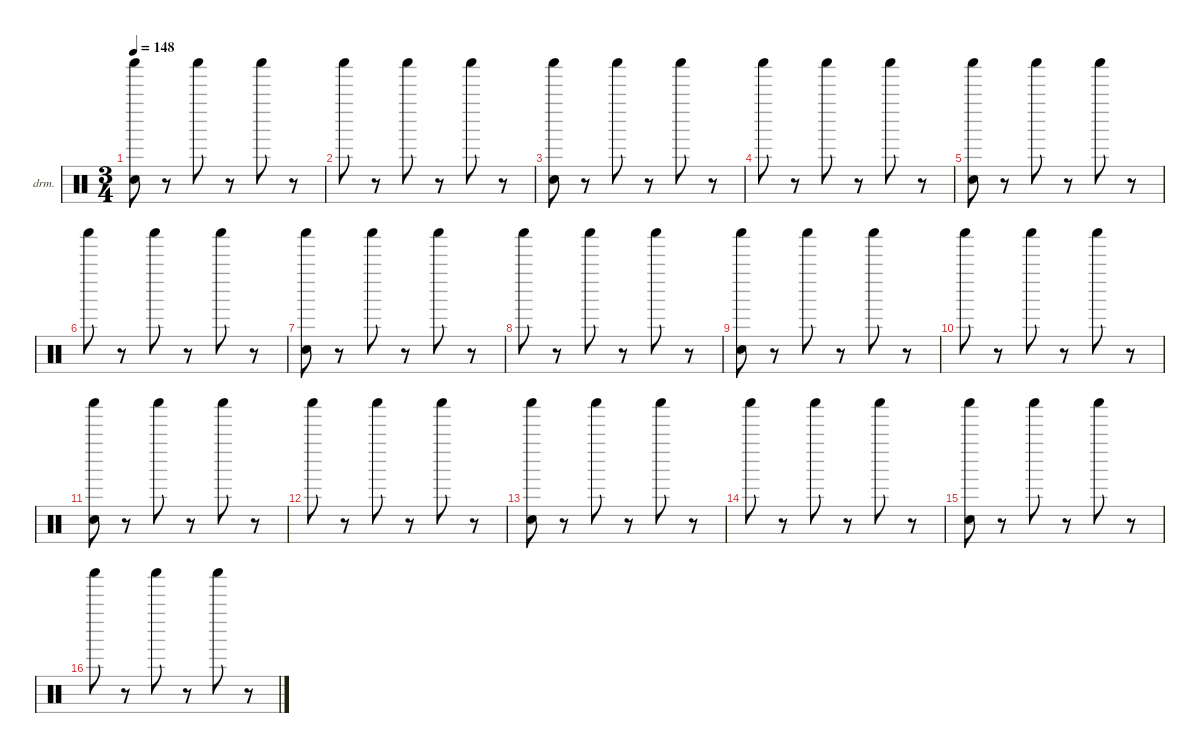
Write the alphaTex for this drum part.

\defaultSystemsLayout 4
\hideDynamics
\bracketExtendMode nobrackets
\firstSystemTrackNameOrientation horizontal
\otherSystemsTrackNameOrientation horizontal
\track ("Drums" "drm.") {instrument percussion}
\staff {score}
\articulation defaults
\ts (3 4)
\tempo 148
\clef neutral
\ks c
("Shaker (hit)" "Hand Clap (hit)").8{dy f beam Down} r.8{beam Down} "Shaker (hit)".8{beam Down} r.8{beam Down} "Shaker (hit)".8{beam Down} r.8{beam Down} |
"Shaker (hit)".8{beam Down} r.8{beam Down} "Shaker (hit)".8{beam Down} r.8{beam Down} "Shaker (hit)".8{beam Down} r.8{beam Down} |
("Shaker (hit)" "Hand Clap (hit)").8{beam Down} r.8{beam Down} "Shaker (hit)".8{beam Down} r.8{beam Down} "Shaker (hit)".8{beam Down} r.8{beam Down} |
"Shaker (hit)".8{beam Down} r.8{beam Down} "Shaker (hit)".8{beam Down} r.8{beam Down} "Shaker (hit)".8{beam Down} r.8{beam Down} |
("Shaker (hit)" "Hand Clap (hit)").8{beam Down} r.8{beam Down} "Shaker (hit)".8{beam Down} r.8{beam Down} "Shaker (hit)".8{beam Down} r.8{beam Down} |
"Shaker (hit)".8{beam Down} r.8{beam Down} "Shaker (hit)".8{beam Down} r.8{beam Down} "Shaker (hit)".8{beam Down} r.8{beam Down} |
("Shaker (hit)" "Hand Clap (hit)").8{beam Down} r.8{beam Down} "Shaker (hit)".8{beam Down} r.8{beam Down} "Shaker (hit)".8{beam Down} r.8{beam Down} |
"Shaker (hit)".8{beam Down} r.8{beam Down} "Shaker (hit)".8{beam Down} r.8{beam Down} "Shaker (hit)".8{beam Down} r.8{beam Down} |
("Shaker (hit)" "Hand Clap (hit)").8{beam Down} r.8{beam Down} "Shaker (hit)".8{beam Down} r.8{beam Down} "Shaker (hit)".8{beam Down} r.8{beam Down} |
"Shaker (hit)".8{beam Down} r.8{beam Down} "Shaker (hit)".8{beam Down} r.8{beam Down} "Shaker (hit)".8{beam Down} r.8{beam Down} |
("Shaker (hit)" "Hand Clap (hit)").8{beam Down} r.8{beam Down} "Shaker (hit)".8{beam Down} r.8{beam Down} "Shaker (hit)".8{beam Down} r.8{beam Down} |
"Shaker (hit)".8{beam Down} r.8{beam Down} "Shaker (hit)".8{beam Down} r.8{beam Down} "Shaker (hit)".8{beam Down} r.8{beam Down} |
("Shaker (hit)" "Hand Clap (hit)").8{beam Down} r.8{beam Down} "Shaker (hit)".8{beam Down} r.8{beam Down} "Shaker (hit)".8{beam Down} r.8{beam Down} |
"Shaker (hit)".8{beam Down} r.8{beam Down} "Shaker (hit)".8{beam Down} r.8{beam Down} "Shaker (hit)".8{beam Down} r.8{beam Down} |
("Shaker (hit)" "Hand Clap (hit)").8{beam Down} r.8{beam Down} "Shaker (hit)".8{beam Down} r.8{beam Down} "Shaker (hit)".8{beam Down} r.8{beam Down} |
"Shaker (hit)".8{beam Down} r.8{beam Down} "Shaker (hit)".8{beam Down} r.8{beam Down} "Shaker (hit)".8{beam Down} r.8{beam Down}
